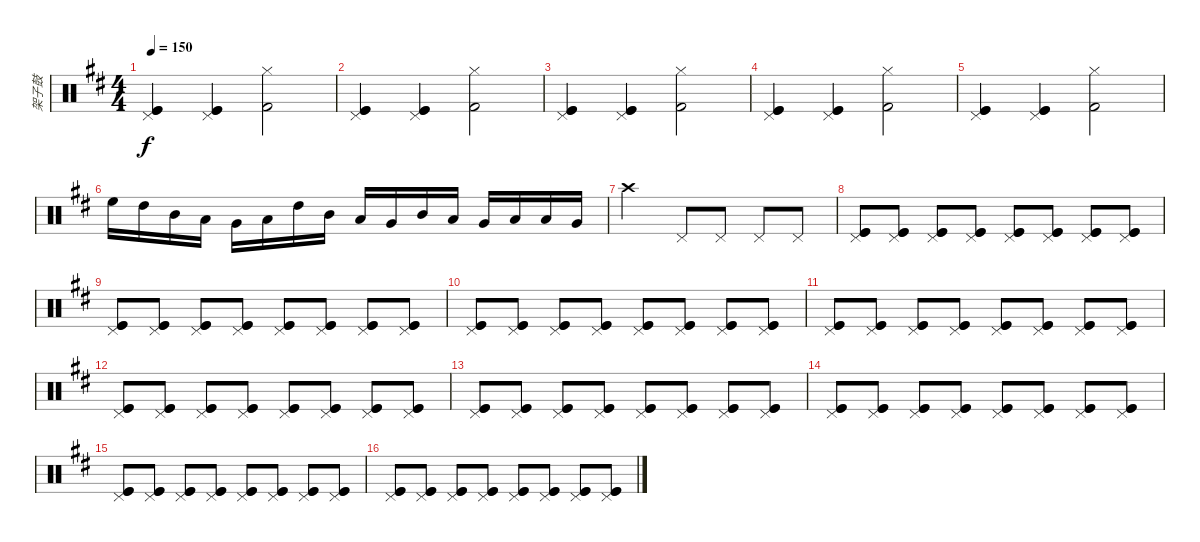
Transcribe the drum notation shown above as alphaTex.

\track ("架子鼓" "架子鼓") {instrument percussion}
\staff {score}
\articulation defaults
\ts (4 4)
\tempo 150
\clef neutral
\ks bminor
("Kick (hit)" "Kick (hit)" "Pedal Hi-Hat (hit)").4{dy f} ("Kick (hit)" "Kick (hit)" "Pedal Hi-Hat (hit)").4 ("Kick (hit) 2" "Hi-Hat (closed)").2 |
("Kick (hit)" "Kick (hit)" "Pedal Hi-Hat (hit)").4 ("Kick (hit)" "Kick (hit)" "Pedal Hi-Hat (hit)").4 ("Kick (hit) 2" "Hi-Hat (closed)").2 |
("Kick (hit)" "Kick (hit)" "Pedal Hi-Hat (hit)").4 ("Kick (hit)" "Kick (hit)" "Pedal Hi-Hat (hit)").4 ("Kick (hit) 2" "Hi-Hat (closed)").2 |
("Kick (hit)" "Kick (hit)" "Pedal Hi-Hat (hit)").4 ("Kick (hit)" "Kick (hit)" "Pedal Hi-Hat (hit)").4 ("Kick (hit) 2" "Hi-Hat (closed)").2 |
("Kick (hit)" "Kick (hit)" "Pedal Hi-Hat (hit)").4 ("Kick (hit)" "Kick (hit)" "Pedal Hi-Hat (hit)").4 ("Kick (hit) 2" "Hi-Hat (closed)").2 |
"High Floor Tom (hit)".16 "High Tom (hit)".16 "Mid Tom (hit)".16 "Low Tom (hit)".16 "Very Low Tom (hit)".16 "Low Floor Tom (hit)".16 "High Tom (hit)".16 "Mid Tom (hit)".16 "Low Tom (hit)".16 "Very Low Tom (hit)".16 "Mid Tom (hit)".16 "Low Tom (hit)".16 "Very Low Tom (hit)".16 "Low Floor Tom (hit)".16 "Low Tom (hit)".16 "Very Low Tom (hit)".16 |
"Crash high (hit)".2 "Pedal Hi-Hat (hit)".8 "Pedal Hi-Hat (hit)".8 "Pedal Hi-Hat (hit)".8 "Pedal Hi-Hat (hit)".8 |
("Kick (hit)" "Kick (hit)" "Pedal Hi-Hat (hit)").8 ("Kick (hit)" "Kick (hit)" "Pedal Hi-Hat (hit)").8 ("Kick (hit)" "Kick (hit)" "Pedal Hi-Hat (hit)").8 ("Kick (hit)" "Kick (hit)" "Pedal Hi-Hat (hit)").8 ("Kick (hit)" "Kick (hit)" "Pedal Hi-Hat (hit)").8 ("Kick (hit)" "Kick (hit)" "Pedal Hi-Hat (hit)").8 ("Kick (hit)" "Kick (hit)" "Pedal Hi-Hat (hit)").8 ("Kick (hit)" "Kick (hit)" "Pedal Hi-Hat (hit)").8 |
("Kick (hit)" "Kick (hit)" "Pedal Hi-Hat (hit)").8 ("Kick (hit)" "Kick (hit)" "Pedal Hi-Hat (hit)").8 ("Kick (hit)" "Kick (hit)" "Pedal Hi-Hat (hit)").8 ("Kick (hit)" "Kick (hit)" "Pedal Hi-Hat (hit)").8 ("Kick (hit)" "Kick (hit)" "Pedal Hi-Hat (hit)").8 ("Kick (hit)" "Kick (hit)" "Pedal Hi-Hat (hit)").8 ("Kick (hit)" "Kick (hit)" "Pedal Hi-Hat (hit)").8 ("Kick (hit)" "Kick (hit)" "Pedal Hi-Hat (hit)").8 |
("Kick (hit)" "Kick (hit)" "Pedal Hi-Hat (hit)").8 ("Kick (hit)" "Kick (hit)" "Pedal Hi-Hat (hit)").8 ("Kick (hit)" "Kick (hit)" "Pedal Hi-Hat (hit)").8 ("Kick (hit)" "Kick (hit)" "Pedal Hi-Hat (hit)").8 ("Kick (hit)" "Kick (hit)" "Pedal Hi-Hat (hit)").8 ("Kick (hit)" "Kick (hit)" "Pedal Hi-Hat (hit)").8 ("Kick (hit)" "Kick (hit)" "Pedal Hi-Hat (hit)").8 ("Kick (hit)" "Kick (hit)" "Pedal Hi-Hat (hit)").8 |
("Kick (hit)" "Kick (hit)" "Pedal Hi-Hat (hit)").8 ("Kick (hit)" "Kick (hit)" "Pedal Hi-Hat (hit)").8 ("Kick (hit)" "Kick (hit)" "Pedal Hi-Hat (hit)").8 ("Kick (hit)" "Kick (hit)" "Pedal Hi-Hat (hit)").8 ("Kick (hit)" "Kick (hit)" "Pedal Hi-Hat (hit)").8 ("Kick (hit)" "Kick (hit)" "Pedal Hi-Hat (hit)").8 ("Kick (hit)" "Kick (hit)" "Pedal Hi-Hat (hit)").8 ("Kick (hit)" "Kick (hit)" "Pedal Hi-Hat (hit)").8 |
("Kick (hit)" "Kick (hit)" "Pedal Hi-Hat (hit)").8 ("Kick (hit)" "Kick (hit)" "Pedal Hi-Hat (hit)").8 ("Kick (hit)" "Kick (hit)" "Pedal Hi-Hat (hit)").8 ("Kick (hit)" "Kick (hit)" "Pedal Hi-Hat (hit)").8 ("Kick (hit)" "Kick (hit)" "Pedal Hi-Hat (hit)").8 ("Kick (hit)" "Kick (hit)" "Pedal Hi-Hat (hit)").8 ("Kick (hit)" "Kick (hit)" "Pedal Hi-Hat (hit)").8 ("Kick (hit)" "Kick (hit)" "Pedal Hi-Hat (hit)").8 |
("Kick (hit)" "Kick (hit)" "Pedal Hi-Hat (hit)").8 ("Kick (hit)" "Kick (hit)" "Pedal Hi-Hat (hit)").8 ("Kick (hit)" "Kick (hit)" "Pedal Hi-Hat (hit)").8 ("Kick (hit)" "Kick (hit)" "Pedal Hi-Hat (hit)").8 ("Kick (hit)" "Kick (hit)" "Pedal Hi-Hat (hit)").8 ("Kick (hit)" "Kick (hit)" "Pedal Hi-Hat (hit)").8 ("Kick (hit)" "Kick (hit)" "Pedal Hi-Hat (hit)").8 ("Kick (hit)" "Kick (hit)" "Pedal Hi-Hat (hit)").8 |
("Kick (hit)" "Kick (hit)" "Pedal Hi-Hat (hit)").8 ("Kick (hit)" "Kick (hit)" "Pedal Hi-Hat (hit)").8 ("Kick (hit)" "Kick (hit)" "Pedal Hi-Hat (hit)").8 ("Kick (hit)" "Kick (hit)" "Pedal Hi-Hat (hit)").8 ("Kick (hit)" "Kick (hit)" "Pedal Hi-Hat (hit)").8 ("Kick (hit)" "Kick (hit)" "Pedal Hi-Hat (hit)").8 ("Kick (hit)" "Kick (hit)" "Pedal Hi-Hat (hit)").8 ("Kick (hit)" "Kick (hit)" "Pedal Hi-Hat (hit)").8 |
("Kick (hit)" "Kick (hit)" "Pedal Hi-Hat (hit)").8 ("Kick (hit)" "Kick (hit)" "Pedal Hi-Hat (hit)").8 ("Kick (hit)" "Kick (hit)" "Pedal Hi-Hat (hit)").8 ("Kick (hit)" "Kick (hit)" "Pedal Hi-Hat (hit)").8 ("Kick (hit)" "Kick (hit)" "Pedal Hi-Hat (hit)").8 ("Kick (hit)" "Kick (hit)" "Pedal Hi-Hat (hit)").8 ("Kick (hit)" "Kick (hit)" "Pedal Hi-Hat (hit)").8 ("Kick (hit)" "Kick (hit)" "Pedal Hi-Hat (hit)").8 |
("Kick (hit)" "Kick (hit)" "Pedal Hi-Hat (hit)").8 ("Kick (hit)" "Kick (hit)" "Pedal Hi-Hat (hit)").8 ("Kick (hit)" "Kick (hit)" "Pedal Hi-Hat (hit)").8 ("Kick (hit)" "Kick (hit)" "Pedal Hi-Hat (hit)").8 ("Kick (hit)" "Kick (hit)" "Pedal Hi-Hat (hit)").8 ("Kick (hit)" "Kick (hit)" "Pedal Hi-Hat (hit)").8 ("Kick (hit)" "Kick (hit)" "Pedal Hi-Hat (hit)").8 ("Kick (hit)" "Kick (hit)" "Pedal Hi-Hat (hit)").8
